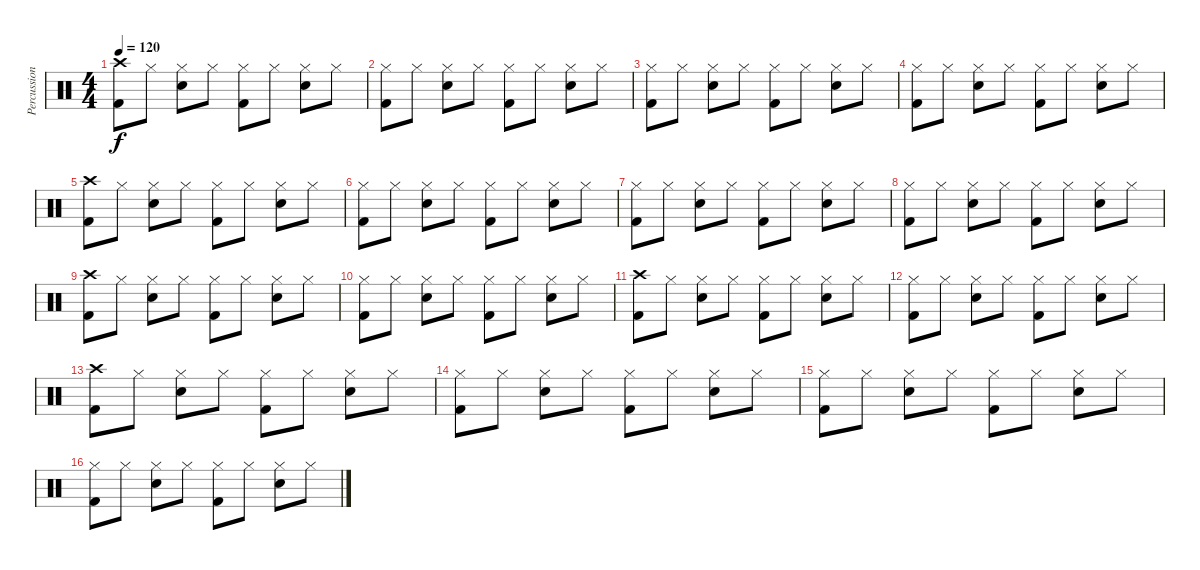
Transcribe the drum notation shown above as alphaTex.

\track ("Percussion" "Percussion") {instrument percussion}
\staff {score}
\articulation defaults
\ts (4 4)
\tempo 120
\clef neutral
\ks c
("Crash high (hit)" "Kick (hit) 2").8{dy f} "Hi-Hat (closed)".8 ("Hi-Hat (closed)" "Electric Snare (hit)").8 "Hi-Hat (closed)".8 ("Hi-Hat (closed)" "Kick (hit) 2").8 "Hi-Hat (closed)".8 ("Hi-Hat (closed)" "Electric Snare (hit)").8 "Hi-Hat (closed)".8 |
("Hi-Hat (closed)" "Kick (hit) 2").8 "Hi-Hat (closed)".8 ("Hi-Hat (closed)" "Electric Snare (hit)").8 "Hi-Hat (closed)".8 ("Hi-Hat (closed)" "Kick (hit) 2").8 "Hi-Hat (closed)".8 ("Hi-Hat (closed)" "Electric Snare (hit)").8 "Hi-Hat (closed)".8 |
("Hi-Hat (closed)" "Kick (hit) 2").8 "Hi-Hat (closed)".8 ("Hi-Hat (closed)" "Electric Snare (hit)").8 "Hi-Hat (closed)".8 ("Hi-Hat (closed)" "Kick (hit) 2").8 "Hi-Hat (closed)".8 ("Hi-Hat (closed)" "Electric Snare (hit)").8 "Hi-Hat (closed)".8 |
("Hi-Hat (closed)" "Kick (hit) 2").8 "Hi-Hat (closed)".8 ("Hi-Hat (closed)" "Electric Snare (hit)").8 "Hi-Hat (closed)".8 ("Hi-Hat (closed)" "Kick (hit) 2").8 "Hi-Hat (closed)".8 ("Hi-Hat (closed)" "Electric Snare (hit)").8 "Hi-Hat (closed)".8 |
("Crash high (hit)" "Kick (hit) 2").8 "Hi-Hat (closed)".8 ("Hi-Hat (closed)" "Electric Snare (hit)").8 "Hi-Hat (closed)".8 ("Hi-Hat (closed)" "Kick (hit) 2").8 "Hi-Hat (closed)".8 ("Hi-Hat (closed)" "Electric Snare (hit)").8 "Hi-Hat (closed)".8 |
("Hi-Hat (closed)" "Kick (hit) 2").8 "Hi-Hat (closed)".8 ("Hi-Hat (closed)" "Electric Snare (hit)").8 "Hi-Hat (closed)".8 ("Hi-Hat (closed)" "Kick (hit) 2").8 "Hi-Hat (closed)".8 ("Hi-Hat (closed)" "Electric Snare (hit)").8 "Hi-Hat (closed)".8 |
("Hi-Hat (closed)" "Kick (hit) 2").8 "Hi-Hat (closed)".8 ("Hi-Hat (closed)" "Electric Snare (hit)").8 "Hi-Hat (closed)".8 ("Hi-Hat (closed)" "Kick (hit) 2").8 "Hi-Hat (closed)".8 ("Hi-Hat (closed)" "Electric Snare (hit)").8 "Hi-Hat (closed)".8 |
("Hi-Hat (closed)" "Kick (hit) 2").8 "Hi-Hat (closed)".8 ("Hi-Hat (closed)" "Electric Snare (hit)").8 "Hi-Hat (closed)".8 ("Hi-Hat (closed)" "Kick (hit) 2").8 "Hi-Hat (closed)".8 ("Hi-Hat (closed)" "Electric Snare (hit)").8 "Hi-Hat (closed)".8 |
("Crash high (hit)" "Kick (hit) 2").8 "Hi-Hat (closed)".8 ("Hi-Hat (closed)" "Electric Snare (hit)").8 "Hi-Hat (closed)".8 ("Hi-Hat (closed)" "Kick (hit) 2").8 "Hi-Hat (closed)".8 ("Hi-Hat (closed)" "Electric Snare (hit)").8 "Hi-Hat (closed)".8 |
("Hi-Hat (closed)" "Kick (hit) 2").8 "Hi-Hat (closed)".8 ("Hi-Hat (closed)" "Electric Snare (hit)").8 "Hi-Hat (closed)".8 ("Hi-Hat (closed)" "Kick (hit) 2").8 "Hi-Hat (closed)".8 ("Hi-Hat (closed)" "Electric Snare (hit)").8 "Hi-Hat (closed)".8 |
("Crash high (hit)" "Kick (hit) 2").8 "Hi-Hat (closed)".8 ("Hi-Hat (closed)" "Electric Snare (hit)").8 "Hi-Hat (closed)".8 ("Hi-Hat (closed)" "Kick (hit) 2").8 "Hi-Hat (closed)".8 ("Hi-Hat (closed)" "Electric Snare (hit)").8 "Hi-Hat (closed)".8 |
("Hi-Hat (closed)" "Kick (hit) 2").8 "Hi-Hat (closed)".8 ("Hi-Hat (closed)" "Electric Snare (hit)").8 "Hi-Hat (closed)".8 ("Hi-Hat (closed)" "Kick (hit) 2").8 "Hi-Hat (closed)".8 ("Hi-Hat (closed)" "Electric Snare (hit)").8 "Hi-Hat (closed)".8 |
("Crash high (hit)" "Kick (hit) 2").8 "Hi-Hat (closed)".8 ("Hi-Hat (closed)" "Electric Snare (hit)").8 "Hi-Hat (closed)".8 ("Hi-Hat (closed)" "Kick (hit) 2").8 "Hi-Hat (closed)".8 ("Hi-Hat (closed)" "Electric Snare (hit)").8 "Hi-Hat (closed)".8 |
("Hi-Hat (closed)" "Kick (hit) 2").8 "Hi-Hat (closed)".8 ("Hi-Hat (closed)" "Electric Snare (hit)").8 "Hi-Hat (closed)".8 ("Hi-Hat (closed)" "Kick (hit) 2").8 "Hi-Hat (closed)".8 ("Hi-Hat (closed)" "Electric Snare (hit)").8 "Hi-Hat (closed)".8 |
("Hi-Hat (closed)" "Kick (hit) 2").8 "Hi-Hat (closed)".8 ("Hi-Hat (closed)" "Electric Snare (hit)").8 "Hi-Hat (closed)".8 ("Hi-Hat (closed)" "Kick (hit) 2").8 "Hi-Hat (closed)".8 ("Hi-Hat (closed)" "Electric Snare (hit)").8 "Hi-Hat (closed)".8 |
("Hi-Hat (closed)" "Kick (hit) 2").8 "Hi-Hat (closed)".8 ("Hi-Hat (closed)" "Electric Snare (hit)").8 "Hi-Hat (closed)".8 ("Hi-Hat (closed)" "Kick (hit) 2").8 "Hi-Hat (closed)".8 ("Hi-Hat (closed)" "Electric Snare (hit)").8 "Hi-Hat (closed)".8
